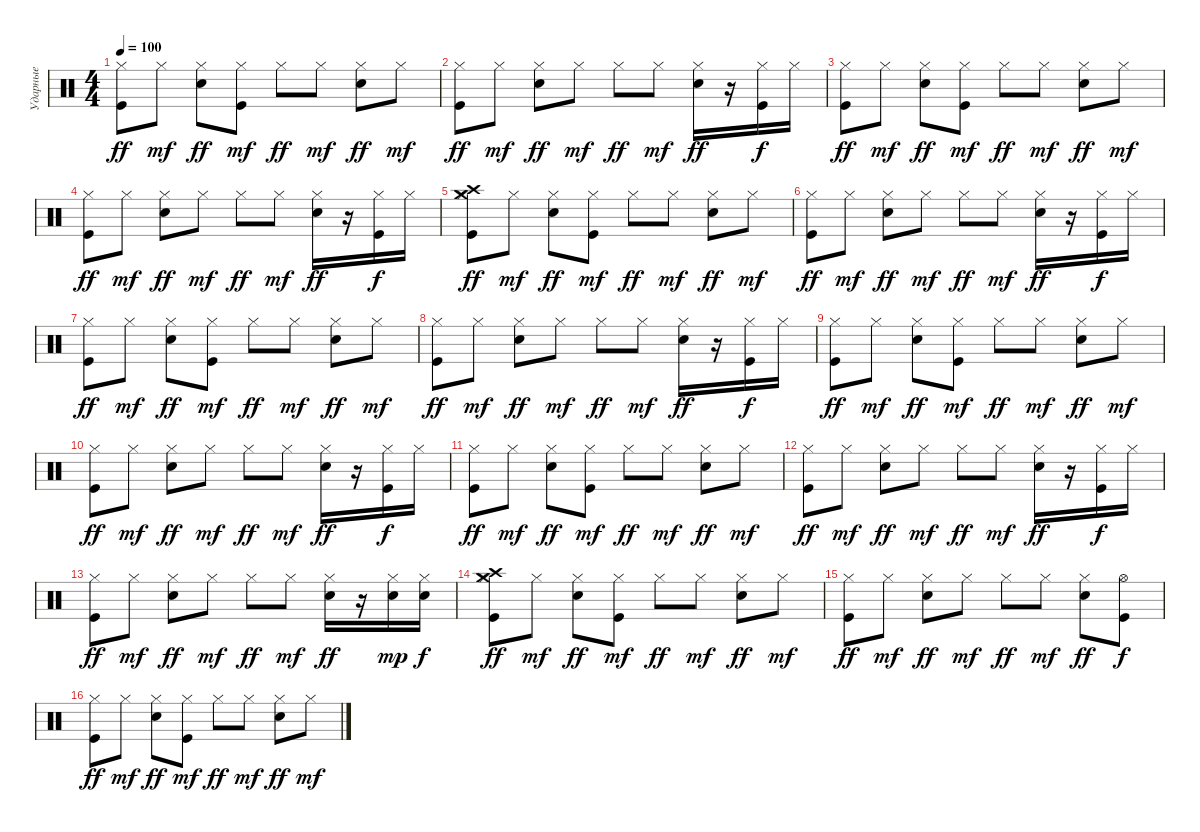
\track ("Ударные" "Ударные") {instrument percussion}
\staff {score}
\articulation defaults
\ts (4 4)
\tempo 100
\clef neutral
\ks c
("Kick (hit)" "Hi-Hat (closed)").8{dy ff} "Hi-Hat (closed)".8{dy mf} ("Electric Snare (hit)" "Hi-Hat (closed)").8{dy ff} ("Kick (hit)" "Hi-Hat (closed)").8{dy mf} "Hi-Hat (closed)".8{dy ff} "Hi-Hat (closed)".8{dy mf} ("Electric Snare (hit)" "Hi-Hat (closed)").8{dy ff} "Hi-Hat (closed)".8{dy mf} |
("Kick (hit)" "Hi-Hat (closed)").8{dy ff} "Hi-Hat (closed)".8{dy mf} ("Electric Snare (hit)" "Hi-Hat (closed)").8{dy ff} "Hi-Hat (closed)".8{dy mf} "Hi-Hat (closed)".8{dy ff} "Hi-Hat (closed)".8{dy mf} ("Electric Snare (hit)" "Hi-Hat (closed)").16{dy ff} r.16 ("Kick (hit)" "Hi-Hat (closed)").16{dy f} "Hi-Hat (closed)".16 |
("Kick (hit)" "Hi-Hat (closed)").8{dy ff} "Hi-Hat (closed)".8{dy mf} ("Electric Snare (hit)" "Hi-Hat (closed)").8{dy ff} ("Kick (hit)" "Hi-Hat (closed)").8{dy mf} "Hi-Hat (closed)".8{dy ff} "Hi-Hat (closed)".8{dy mf} ("Electric Snare (hit)" "Hi-Hat (closed)").8{dy ff} "Hi-Hat (closed)".8{dy mf} |
("Kick (hit)" "Hi-Hat (closed)").8{dy ff} "Hi-Hat (closed)".8{dy mf} ("Electric Snare (hit)" "Hi-Hat (closed)").8{dy ff} "Hi-Hat (closed)".8{dy mf} "Hi-Hat (closed)".8{dy ff} "Hi-Hat (closed)".8{dy mf} ("Electric Snare (hit)" "Hi-Hat (closed)").16{dy ff} r.16 ("Kick (hit)" "Hi-Hat (closed)").16{dy f} "Hi-Hat (closed)".16 |
("Kick (hit)" "Hi-Hat (closed)" "Crash high (hit)" "Crash medium (hit)").8{dy ff} "Hi-Hat (closed)".8{dy mf} ("Electric Snare (hit)" "Hi-Hat (closed)").8{dy ff} ("Kick (hit)" "Hi-Hat (closed)").8{dy mf} "Hi-Hat (closed)".8{dy ff} "Hi-Hat (closed)".8{dy mf} ("Electric Snare (hit)" "Hi-Hat (closed)").8{dy ff} "Hi-Hat (closed)".8{dy mf} |
("Kick (hit)" "Hi-Hat (closed)").8{dy ff} "Hi-Hat (closed)".8{dy mf} ("Electric Snare (hit)" "Hi-Hat (closed)").8{dy ff} "Hi-Hat (closed)".8{dy mf} "Hi-Hat (closed)".8{dy ff} "Hi-Hat (closed)".8{dy mf} ("Electric Snare (hit)" "Hi-Hat (closed)").16{dy ff} r.16 ("Kick (hit)" "Hi-Hat (closed)").16{dy f} "Hi-Hat (closed)".16 |
("Kick (hit)" "Hi-Hat (closed)").8{dy ff} "Hi-Hat (closed)".8{dy mf} ("Electric Snare (hit)" "Hi-Hat (closed)").8{dy ff} ("Kick (hit)" "Hi-Hat (closed)").8{dy mf} "Hi-Hat (closed)".8{dy ff} "Hi-Hat (closed)".8{dy mf} ("Electric Snare (hit)" "Hi-Hat (closed)").8{dy ff} "Hi-Hat (closed)".8{dy mf} |
("Kick (hit)" "Hi-Hat (closed)").8{dy ff} "Hi-Hat (closed)".8{dy mf} ("Electric Snare (hit)" "Hi-Hat (closed)").8{dy ff} "Hi-Hat (closed)".8{dy mf} "Hi-Hat (closed)".8{dy ff} "Hi-Hat (closed)".8{dy mf} ("Electric Snare (hit)" "Hi-Hat (closed)").16{dy ff} r.16 ("Kick (hit)" "Hi-Hat (closed)").16{dy f} "Hi-Hat (closed)".16 |
("Kick (hit)" "Hi-Hat (closed)").8{dy ff} "Hi-Hat (closed)".8{dy mf} ("Electric Snare (hit)" "Hi-Hat (closed)").8{dy ff} ("Kick (hit)" "Hi-Hat (closed)").8{dy mf} "Hi-Hat (closed)".8{dy ff} "Hi-Hat (closed)".8{dy mf} ("Electric Snare (hit)" "Hi-Hat (closed)").8{dy ff} "Hi-Hat (closed)".8{dy mf} |
("Kick (hit)" "Hi-Hat (closed)").8{dy ff} "Hi-Hat (closed)".8{dy mf} ("Electric Snare (hit)" "Hi-Hat (closed)").8{dy ff} "Hi-Hat (closed)".8{dy mf} "Hi-Hat (closed)".8{dy ff} "Hi-Hat (closed)".8{dy mf} ("Electric Snare (hit)" "Hi-Hat (closed)").16{dy ff} r.16 ("Kick (hit)" "Hi-Hat (closed)").16{dy f} "Hi-Hat (closed)".16 |
("Kick (hit)" "Hi-Hat (closed)").8{dy ff} "Hi-Hat (closed)".8{dy mf} ("Electric Snare (hit)" "Hi-Hat (closed)").8{dy ff} ("Kick (hit)" "Hi-Hat (closed)").8{dy mf} "Hi-Hat (closed)".8{dy ff} "Hi-Hat (closed)".8{dy mf} ("Electric Snare (hit)" "Hi-Hat (closed)").8{dy ff} "Hi-Hat (closed)".8{dy mf} |
("Kick (hit)" "Hi-Hat (closed)").8{dy ff} "Hi-Hat (closed)".8{dy mf} ("Electric Snare (hit)" "Hi-Hat (closed)").8{dy ff} "Hi-Hat (closed)".8{dy mf} "Hi-Hat (closed)".8{dy ff} "Hi-Hat (closed)".8{dy mf} ("Electric Snare (hit)" "Hi-Hat (closed)").16{dy ff} r.16 ("Kick (hit)" "Hi-Hat (closed)").16{dy f} "Hi-Hat (closed)".16 |
("Kick (hit)" "Hi-Hat (closed)").8{dy ff} "Hi-Hat (closed)".8{dy mf} ("Electric Snare (hit)" "Hi-Hat (closed)").8{dy ff} "Hi-Hat (closed)".8{dy mf} "Hi-Hat (closed)".8{dy ff} "Hi-Hat (closed)".8{dy mf} ("Electric Snare (hit)" "Hi-Hat (closed)").16{dy ff} r.16 ("Electric Snare (hit)" "Hi-Hat (closed)").16{dy mp} ("Electric Snare (hit)" "Hi-Hat (closed)").16{dy f} |
("Kick (hit)" "Hi-Hat (closed)" "Crash high (hit)" "Crash medium (hit)").8{dy ff} "Hi-Hat (closed)".8{dy mf} ("Electric Snare (hit)" "Hi-Hat (closed)").8{dy ff} ("Kick (hit)" "Hi-Hat (closed)").8{dy mf} "Hi-Hat (closed)".8{dy ff} "Hi-Hat (closed)".8{dy mf} ("Electric Snare (hit)" "Hi-Hat (closed)").8{dy ff} "Hi-Hat (closed)".8{dy mf} |
("Kick (hit)" "Hi-Hat (closed)").8{dy ff} "Hi-Hat (closed)".8{dy mf} ("Electric Snare (hit)" "Hi-Hat (closed)").8{dy ff} "Hi-Hat (closed)".8{dy mf} "Hi-Hat (closed)".8{dy ff} "Hi-Hat (closed)".8{dy mf} ("Electric Snare (hit)" "Hi-Hat (closed)").8{dy ff} ("Kick (hit)" "Hi-Hat (open)").8{dy f} |
("Kick (hit)" "Hi-Hat (closed)").8{dy ff} "Hi-Hat (closed)".8{dy mf} ("Electric Snare (hit)" "Hi-Hat (closed)").8{dy ff} ("Kick (hit)" "Hi-Hat (closed)").8{dy mf} "Hi-Hat (closed)".8{dy ff} "Hi-Hat (closed)".8{dy mf} ("Electric Snare (hit)" "Hi-Hat (closed)").8{dy ff} "Hi-Hat (closed)".8{dy mf}
